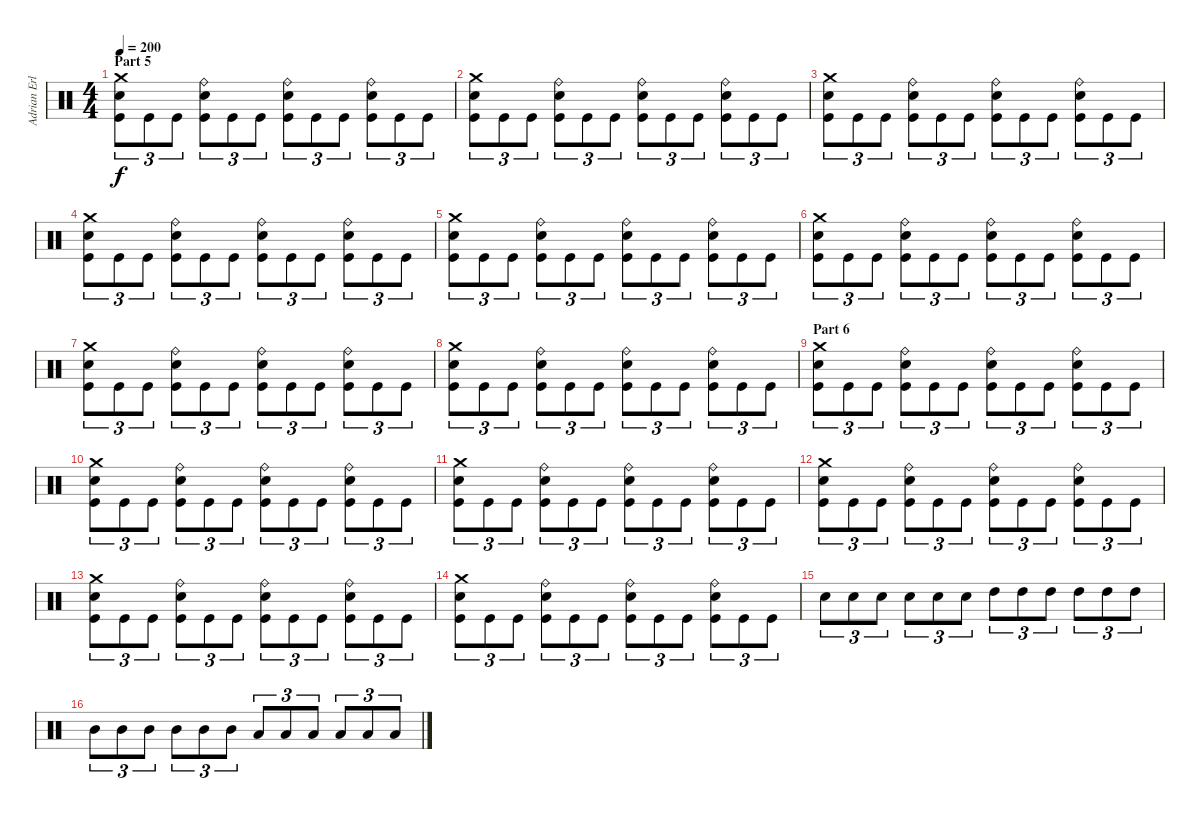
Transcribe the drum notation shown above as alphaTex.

\track ("Adrian Erlandsson" "Adrian Erl") {instrument percussion}
\staff {score}
\articulation defaults
\ts (4 4)
\section ("" "Part 5")
\tempo 200
\clef neutral
\ks c
("Crash medium (hit)" "Electric Snare (hit)" "Kick (hit)").8{tu (3 2) dy f} "Kick (hit)".8{tu (3 2)} "Kick (hit)".8{tu (3 2)} ("Ride (bell)" "Electric Snare (hit)" "Kick (hit)").8{tu (3 2)} "Kick (hit)".8{tu (3 2)} "Kick (hit)".8{tu (3 2)} ("Ride (bell)" "Electric Snare (hit)" "Kick (hit)").8{tu (3 2)} "Kick (hit)".8{tu (3 2)} "Kick (hit)".8{tu (3 2)} ("Ride (bell)" "Electric Snare (hit)" "Kick (hit)").8{tu (3 2)} "Kick (hit)".8{tu (3 2)} "Kick (hit)".8{tu (3 2)} |
("Crash medium (hit)" "Electric Snare (hit)" "Kick (hit)").8{tu (3 2)} "Kick (hit)".8{tu (3 2)} "Kick (hit)".8{tu (3 2)} ("Ride (bell)" "Electric Snare (hit)" "Kick (hit)").8{tu (3 2)} "Kick (hit)".8{tu (3 2)} "Kick (hit)".8{tu (3 2)} ("Ride (bell)" "Electric Snare (hit)" "Kick (hit)").8{tu (3 2)} "Kick (hit)".8{tu (3 2)} "Kick (hit)".8{tu (3 2)} ("Ride (bell)" "Electric Snare (hit)" "Kick (hit)").8{tu (3 2)} "Kick (hit)".8{tu (3 2)} "Kick (hit)".8{tu (3 2)} |
("Crash medium (hit)" "Electric Snare (hit)" "Kick (hit)").8{tu (3 2)} "Kick (hit)".8{tu (3 2)} "Kick (hit)".8{tu (3 2)} ("Ride (bell)" "Electric Snare (hit)" "Kick (hit)").8{tu (3 2)} "Kick (hit)".8{tu (3 2)} "Kick (hit)".8{tu (3 2)} ("Ride (bell)" "Electric Snare (hit)" "Kick (hit)").8{tu (3 2)} "Kick (hit)".8{tu (3 2)} "Kick (hit)".8{tu (3 2)} ("Ride (bell)" "Electric Snare (hit)" "Kick (hit)").8{tu (3 2)} "Kick (hit)".8{tu (3 2)} "Kick (hit)".8{tu (3 2)} |
("Crash medium (hit)" "Electric Snare (hit)" "Kick (hit)").8{tu (3 2)} "Kick (hit)".8{tu (3 2)} "Kick (hit)".8{tu (3 2)} ("Ride (bell)" "Electric Snare (hit)" "Kick (hit)").8{tu (3 2)} "Kick (hit)".8{tu (3 2)} "Kick (hit)".8{tu (3 2)} ("Ride (bell)" "Electric Snare (hit)" "Kick (hit)").8{tu (3 2)} "Kick (hit)".8{tu (3 2)} "Kick (hit)".8{tu (3 2)} ("Ride (bell)" "Electric Snare (hit)" "Kick (hit)").8{tu (3 2)} "Kick (hit)".8{tu (3 2)} "Kick (hit)".8{tu (3 2)} |
("Crash medium (hit)" "Electric Snare (hit)" "Kick (hit)").8{tu (3 2)} "Kick (hit)".8{tu (3 2)} "Kick (hit)".8{tu (3 2)} ("Ride (bell)" "Electric Snare (hit)" "Kick (hit)").8{tu (3 2)} "Kick (hit)".8{tu (3 2)} "Kick (hit)".8{tu (3 2)} ("Ride (bell)" "Electric Snare (hit)" "Kick (hit)").8{tu (3 2)} "Kick (hit)".8{tu (3 2)} "Kick (hit)".8{tu (3 2)} ("Ride (bell)" "Electric Snare (hit)" "Kick (hit)").8{tu (3 2)} "Kick (hit)".8{tu (3 2)} "Kick (hit)".8{tu (3 2)} |
("Crash medium (hit)" "Electric Snare (hit)" "Kick (hit)").8{tu (3 2)} "Kick (hit)".8{tu (3 2)} "Kick (hit)".8{tu (3 2)} ("Ride (bell)" "Electric Snare (hit)" "Kick (hit)").8{tu (3 2)} "Kick (hit)".8{tu (3 2)} "Kick (hit)".8{tu (3 2)} ("Ride (bell)" "Electric Snare (hit)" "Kick (hit)").8{tu (3 2)} "Kick (hit)".8{tu (3 2)} "Kick (hit)".8{tu (3 2)} ("Ride (bell)" "Electric Snare (hit)" "Kick (hit)").8{tu (3 2)} "Kick (hit)".8{tu (3 2)} "Kick (hit)".8{tu (3 2)} |
("Crash medium (hit)" "Electric Snare (hit)" "Kick (hit)").8{tu (3 2)} "Kick (hit)".8{tu (3 2)} "Kick (hit)".8{tu (3 2)} ("Ride (bell)" "Electric Snare (hit)" "Kick (hit)").8{tu (3 2)} "Kick (hit)".8{tu (3 2)} "Kick (hit)".8{tu (3 2)} ("Ride (bell)" "Electric Snare (hit)" "Kick (hit)").8{tu (3 2)} "Kick (hit)".8{tu (3 2)} "Kick (hit)".8{tu (3 2)} ("Ride (bell)" "Electric Snare (hit)" "Kick (hit)").8{tu (3 2)} "Kick (hit)".8{tu (3 2)} "Kick (hit)".8{tu (3 2)} |
("Crash medium (hit)" "Electric Snare (hit)" "Kick (hit)").8{tu (3 2)} "Kick (hit)".8{tu (3 2)} "Kick (hit)".8{tu (3 2)} ("Ride (bell)" "Electric Snare (hit)" "Kick (hit)").8{tu (3 2)} "Kick (hit)".8{tu (3 2)} "Kick (hit)".8{tu (3 2)} ("Ride (bell)" "Electric Snare (hit)" "Kick (hit)").8{tu (3 2)} "Kick (hit)".8{tu (3 2)} "Kick (hit)".8{tu (3 2)} ("Ride (bell)" "Electric Snare (hit)" "Kick (hit)").8{tu (3 2)} "Kick (hit)".8{tu (3 2)} "Kick (hit)".8{tu (3 2)} |
\section ("" "Part 6")
("Crash medium (hit)" "Electric Snare (hit)" "Kick (hit)").8{tu (3 2)} "Kick (hit)".8{tu (3 2)} "Kick (hit)".8{tu (3 2)} ("Ride (bell)" "Electric Snare (hit)" "Kick (hit)").8{tu (3 2)} "Kick (hit)".8{tu (3 2)} "Kick (hit)".8{tu (3 2)} ("Ride (bell)" "Electric Snare (hit)" "Kick (hit)").8{tu (3 2)} "Kick (hit)".8{tu (3 2)} "Kick (hit)".8{tu (3 2)} ("Ride (bell)" "Electric Snare (hit)" "Kick (hit)").8{tu (3 2)} "Kick (hit)".8{tu (3 2)} "Kick (hit)".8{tu (3 2)} |
("Crash medium (hit)" "Electric Snare (hit)" "Kick (hit)").8{tu (3 2)} "Kick (hit)".8{tu (3 2)} "Kick (hit)".8{tu (3 2)} ("Ride (bell)" "Electric Snare (hit)" "Kick (hit)").8{tu (3 2)} "Kick (hit)".8{tu (3 2)} "Kick (hit)".8{tu (3 2)} ("Ride (bell)" "Electric Snare (hit)" "Kick (hit)").8{tu (3 2)} "Kick (hit)".8{tu (3 2)} "Kick (hit)".8{tu (3 2)} ("Ride (bell)" "Electric Snare (hit)" "Kick (hit)").8{tu (3 2)} "Kick (hit)".8{tu (3 2)} "Kick (hit)".8{tu (3 2)} |
("Crash medium (hit)" "Electric Snare (hit)" "Kick (hit)").8{tu (3 2)} "Kick (hit)".8{tu (3 2)} "Kick (hit)".8{tu (3 2)} ("Ride (bell)" "Electric Snare (hit)" "Kick (hit)").8{tu (3 2)} "Kick (hit)".8{tu (3 2)} "Kick (hit)".8{tu (3 2)} ("Ride (bell)" "Electric Snare (hit)" "Kick (hit)").8{tu (3 2)} "Kick (hit)".8{tu (3 2)} "Kick (hit)".8{tu (3 2)} ("Ride (bell)" "Electric Snare (hit)" "Kick (hit)").8{tu (3 2)} "Kick (hit)".8{tu (3 2)} "Kick (hit)".8{tu (3 2)} |
("Crash medium (hit)" "Electric Snare (hit)" "Kick (hit)").8{tu (3 2)} "Kick (hit)".8{tu (3 2)} "Kick (hit)".8{tu (3 2)} ("Ride (bell)" "Electric Snare (hit)" "Kick (hit)").8{tu (3 2)} "Kick (hit)".8{tu (3 2)} "Kick (hit)".8{tu (3 2)} ("Ride (bell)" "Electric Snare (hit)" "Kick (hit)").8{tu (3 2)} "Kick (hit)".8{tu (3 2)} "Kick (hit)".8{tu (3 2)} ("Ride (bell)" "Electric Snare (hit)" "Kick (hit)").8{tu (3 2)} "Kick (hit)".8{tu (3 2)} "Kick (hit)".8{tu (3 2)} |
("Crash medium (hit)" "Electric Snare (hit)" "Kick (hit)").8{tu (3 2)} "Kick (hit)".8{tu (3 2)} "Kick (hit)".8{tu (3 2)} ("Ride (bell)" "Electric Snare (hit)" "Kick (hit)").8{tu (3 2)} "Kick (hit)".8{tu (3 2)} "Kick (hit)".8{tu (3 2)} ("Ride (bell)" "Electric Snare (hit)" "Kick (hit)").8{tu (3 2)} "Kick (hit)".8{tu (3 2)} "Kick (hit)".8{tu (3 2)} ("Ride (bell)" "Electric Snare (hit)" "Kick (hit)").8{tu (3 2)} "Kick (hit)".8{tu (3 2)} "Kick (hit)".8{tu (3 2)} |
("Crash medium (hit)" "Electric Snare (hit)" "Kick (hit)").8{tu (3 2)} "Kick (hit)".8{tu (3 2)} "Kick (hit)".8{tu (3 2)} ("Ride (bell)" "Electric Snare (hit)" "Kick (hit)").8{tu (3 2)} "Kick (hit)".8{tu (3 2)} "Kick (hit)".8{tu (3 2)} ("Ride (bell)" "Electric Snare (hit)" "Kick (hit)").8{tu (3 2)} "Kick (hit)".8{tu (3 2)} "Kick (hit)".8{tu (3 2)} ("Ride (bell)" "Electric Snare (hit)" "Kick (hit)").8{tu (3 2)} "Kick (hit)".8{tu (3 2)} "Kick (hit)".8{tu (3 2)} |
"Electric Snare (hit)".8{tu (3 2)} "Electric Snare (hit)".8{tu (3 2)} "Electric Snare (hit)".8{tu (3 2)} "Electric Snare (hit)".8{tu (3 2)} "Electric Snare (hit)".8{tu (3 2)} "Electric Snare (hit)".8{tu (3 2)} "High Tom (hit)".8{tu (3 2)} "High Tom (hit)".8{tu (3 2)} "High Tom (hit)".8{tu (3 2)} "High Tom (hit)".8{tu (3 2)} "High Tom (hit)".8{tu (3 2)} "High Tom (hit)".8{tu (3 2)} |
"Mid Tom (hit)".8{tu (3 2)} "Mid Tom (hit)".8{tu (3 2)} "Mid Tom (hit)".8{tu (3 2)} "Mid Tom (hit)".8{tu (3 2)} "Mid Tom (hit)".8{tu (3 2)} "Mid Tom (hit)".8{tu (3 2)} "Low Tom (hit)".8{tu (3 2)} "Low Tom (hit)".8{tu (3 2)} "Low Tom (hit)".8{tu (3 2)} "Low Tom (hit)".8{tu (3 2)} "Low Tom (hit)".8{tu (3 2)} "Low Tom (hit)".8{tu (3 2)}
